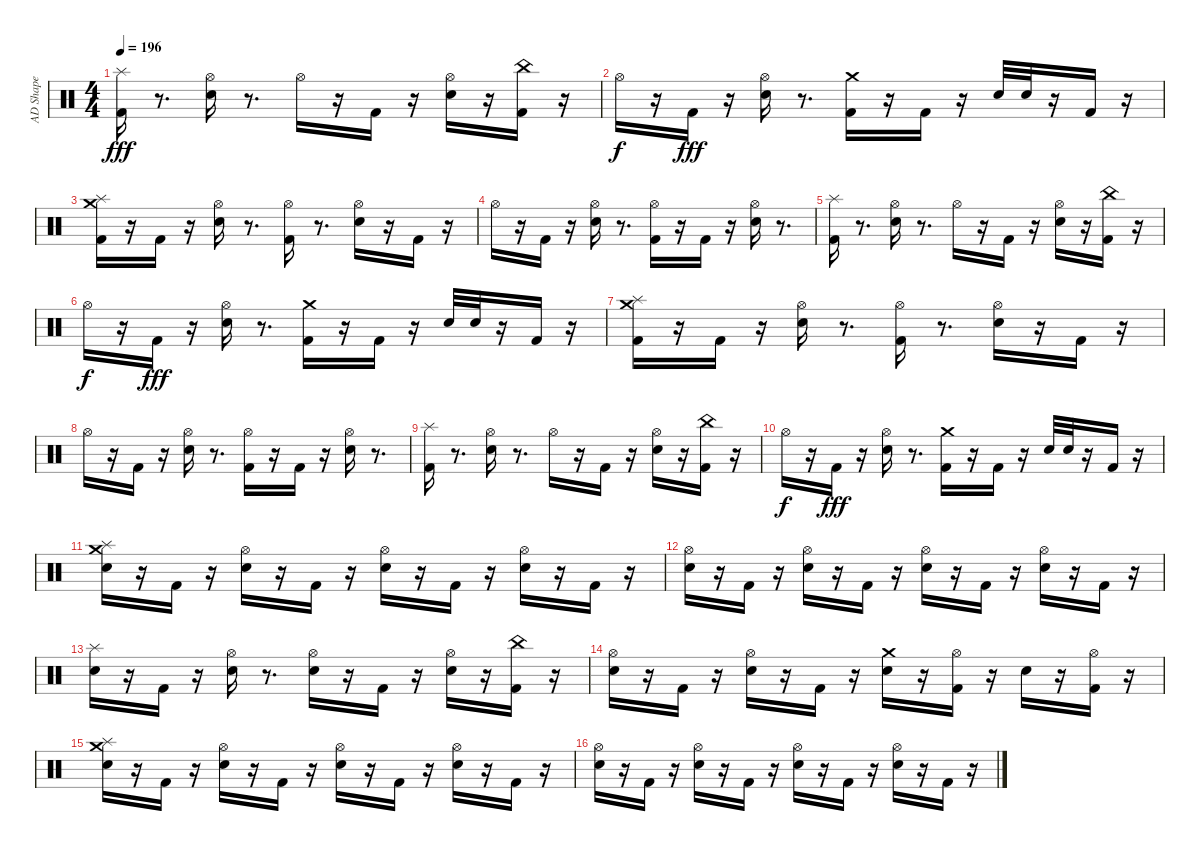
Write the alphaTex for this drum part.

\track ("AD Shape" "AD Shape") {instrument percussion}
\staff {score}
\articulation defaults
\ts (4 4)
\tempo 196
\clef neutral
\ks c
("Kick (hit) 2" "Splash (hit)").16{dy fff} r.8{d} ("Snare (hit) 2" "Hi-Hat (open)").16 r.8{d} "Hi-Hat (open)".16 r.16 "Kick (hit) 2".16 r.16 ("Snare (hit) 2" "Hi-Hat (open)").16 r.16 ("Kick (hit) 2" "China (hit)").16 r.16 |
"Hi-Hat (open)".16{dy f} r.16 "Kick (hit) 2".16{dy fff} r.16 ("Snare (hit) 2" "Hi-Hat (open)").16 r.8{d} ("Kick (hit) 2" "Crash medium (hit)").16 r.16 "Kick (hit) 2".16 r.16 "Snare (hit) 2".32 "Snare (hit) 2".32 r.16 "Kick (hit) 2".16 r.16 |
("Kick (hit) 2" "Splash (hit)" "Crash medium (hit)").16 r.16 "Kick (hit) 2".16 r.16 ("Snare (hit) 2" "Hi-Hat (open)").16 r.8{d} ("Kick (hit) 2" "Hi-Hat (open)").16 r.8{d} ("Snare (hit) 2" "Hi-Hat (open)").16 r.16 "Kick (hit) 2".16 r.16 |
"Hi-Hat (open)".16 r.16 "Kick (hit) 2".16 r.16 ("Snare (hit) 2" "Hi-Hat (open)").16 r.8{d} ("Kick (hit) 2" "Hi-Hat (open)").16 r.16 "Kick (hit) 2".16 r.16 ("Snare (hit) 2" "Hi-Hat (open)").16 r.8{d} |
("Kick (hit) 2" "Splash (hit)").16 r.8{d} ("Snare (hit) 2" "Hi-Hat (open)").16 r.8{d} "Hi-Hat (open)".16 r.16 "Kick (hit) 2".16 r.16 ("Snare (hit) 2" "Hi-Hat (open)").16 r.16 ("Kick (hit) 2" "China (hit)").16 r.16 |
"Hi-Hat (open)".16{dy f} r.16 "Kick (hit) 2".16{dy fff} r.16 ("Snare (hit) 2" "Hi-Hat (open)").16 r.8{d} ("Kick (hit) 2" "Crash medium (hit)").16 r.16 "Kick (hit) 2".16 r.16 "Snare (hit) 2".32 "Snare (hit) 2".32 r.16 "Kick (hit) 2".16 r.16 |
("Kick (hit) 2" "Splash (hit)" "Crash medium (hit)").16 r.16 "Kick (hit) 2".16 r.16 ("Snare (hit) 2" "Hi-Hat (open)").16 r.8{d} ("Kick (hit) 2" "Hi-Hat (open)").16 r.8{d} ("Snare (hit) 2" "Hi-Hat (open)").16 r.16 "Kick (hit) 2".16 r.16 |
"Hi-Hat (open)".16 r.16 "Kick (hit) 2".16 r.16 ("Snare (hit) 2" "Hi-Hat (open)").16 r.8{d} ("Kick (hit) 2" "Hi-Hat (open)").16 r.16 "Kick (hit) 2".16 r.16 ("Snare (hit) 2" "Hi-Hat (open)").16 r.8{d} |
("Kick (hit) 2" "Splash (hit)").16 r.8{d} ("Snare (hit) 2" "Hi-Hat (open)").16 r.8{d} "Hi-Hat (open)".16 r.16 "Kick (hit) 2".16 r.16 ("Snare (hit) 2" "Hi-Hat (open)").16 r.16 ("Kick (hit) 2" "China (hit)").16 r.16 |
"Hi-Hat (open)".16{dy f} r.16 "Kick (hit) 2".16{dy fff} r.16 ("Snare (hit) 2" "Hi-Hat (open)").16 r.8{d} ("Kick (hit) 2" "Crash medium (hit)").16 r.16 "Kick (hit) 2".16 r.16 "Snare (hit) 2".32 "Snare (hit) 2".32 r.16 "Kick (hit) 2".16 r.16 |
("Snare (hit) 2" "Splash (hit)" "Crash medium (hit)").16 r.16 "Kick (hit) 2".16 r.16 ("Snare (hit) 2" "Hi-Hat (open)").16 r.16 "Kick (hit) 2".16 r.16 ("Snare (hit) 2" "Hi-Hat (open)").16 r.16 "Kick (hit) 2".16 r.16 ("Snare (hit) 2" "Hi-Hat (open)").16 r.16 "Kick (hit) 2".16 r.16 |
("Snare (hit) 2" "Hi-Hat (open)").16 r.16 "Kick (hit) 2".16 r.16 ("Snare (hit) 2" "Hi-Hat (open)").16 r.16 "Kick (hit) 2".16 r.16 ("Snare (hit) 2" "Hi-Hat (open)").16 r.16 "Kick (hit) 2".16 r.16 ("Snare (hit) 2" "Hi-Hat (open)").16 r.16 "Kick (hit) 2".16 r.16 |
("Snare (hit) 2" "Splash (hit)").16 r.16 "Kick (hit) 2".16 r.16 ("Snare (hit) 2" "Hi-Hat (open)").16 r.8{d} ("Snare (hit) 2" "Hi-Hat (open)").16 r.16 "Kick (hit) 2".16 r.16 ("Snare (hit) 2" "Hi-Hat (open)").16 r.16 ("Kick (hit) 2" "China (hit)").16 r.16 |
("Snare (hit) 2" "Hi-Hat (open)").16 r.16 "Kick (hit) 2".16 r.16 ("Snare (hit) 2" "Hi-Hat (open)").16 r.16 "Kick (hit) 2".16 r.16 ("Snare (hit) 2" "Crash medium (hit)").16 r.16 ("Kick (hit) 2" "Hi-Hat (open)").16 r.16 "Snare (hit) 2".16 r.16 ("Kick (hit) 2" "Hi-Hat (open)").16 r.16 |
("Snare (hit) 2" "Splash (hit)" "Crash medium (hit)").16 r.16 "Kick (hit) 2".16 r.16 ("Snare (hit) 2" "Hi-Hat (open)").16 r.16 "Kick (hit) 2".16 r.16 ("Snare (hit) 2" "Hi-Hat (open)").16 r.16 "Kick (hit) 2".16 r.16 ("Snare (hit) 2" "Hi-Hat (open)").16 r.16 "Kick (hit) 2".16 r.16 |
("Snare (hit) 2" "Hi-Hat (open)").16 r.16 "Kick (hit) 2".16 r.16 ("Snare (hit) 2" "Hi-Hat (open)").16 r.16 "Kick (hit) 2".16 r.16 ("Snare (hit) 2" "Hi-Hat (open)").16 r.16 "Kick (hit) 2".16 r.16 ("Snare (hit) 2" "Hi-Hat (open)").16 r.16 "Kick (hit) 2".16 r.16
